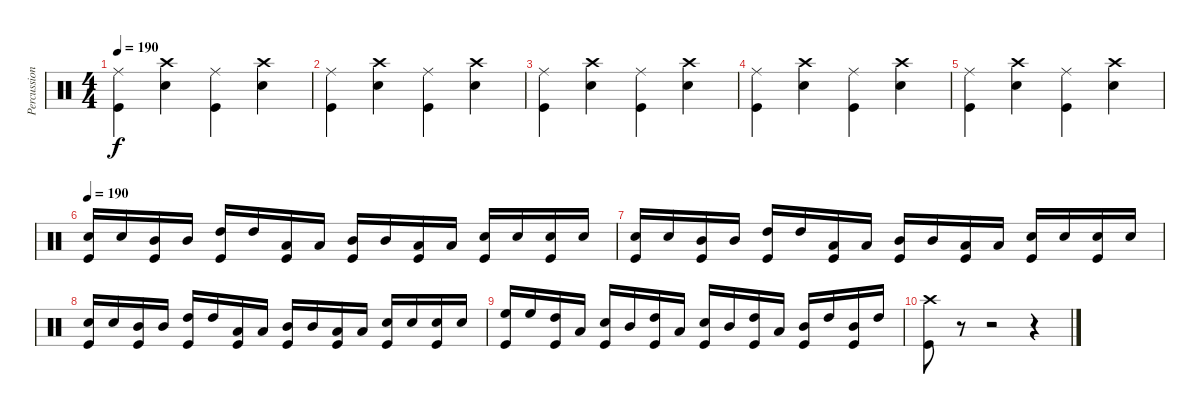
\track ("Percussioni" "Percussion") {instrument percussion}
\staff {score}
\articulation defaults
\ts (4 4)
\tempo 190
\clef neutral
\ks c
("Ride (middle)" "Kick (hit)").4{dy f} ("Crash high (hit)" "Electric Snare (hit)").4 ("Ride (middle)" "Kick (hit)").4 ("Crash high (hit)" "Electric Snare (hit)").4 |
("Ride (middle)" "Kick (hit)").4 ("Crash high (hit)" "Electric Snare (hit)").4 ("Ride (middle)" "Kick (hit)").4 ("Crash high (hit)" "Electric Snare (hit)").4 |
("Ride (middle)" "Kick (hit)").4 ("Crash high (hit)" "Electric Snare (hit)").4 ("Ride (middle)" "Kick (hit)").4 ("Crash high (hit)" "Electric Snare (hit)").4 |
("Ride (middle)" "Kick (hit)").4 ("Crash high (hit)" "Electric Snare (hit)").4 ("Ride (middle)" "Kick (hit)").4 ("Crash high (hit)" "Electric Snare (hit)").4 |
("Ride (middle)" "Kick (hit)").4 ("Crash high (hit)" "Electric Snare (hit)").4 ("Ride (middle)" "Kick (hit)").4 ("Crash high (hit)" "Electric Snare (hit)").4 |
\tempo 190
("Electric Snare (hit)" "Kick (hit)").16 "Electric Snare (hit)".16 ("Mid Tom (hit)" "Kick (hit)").16 "Mid Tom (hit)".16 ("High Tom (hit)" "Kick (hit)").16 "High Tom (hit)".16 ("Low Tom (hit)" "Kick (hit)").16 "Low Tom (hit)".16 ("Mid Tom (hit)" "Kick (hit)").16 "Mid Tom (hit)".16 ("Low Tom (hit)" "Kick (hit)").16 "Low Tom (hit)".16 ("Snare (hit) 2" "Kick (hit)").16 "Snare (hit) 2".16 ("Snare (hit) 2" "Kick (hit)").16 "Snare (hit) 2".16 |
("Electric Snare (hit)" "Kick (hit)").16 "Electric Snare (hit)".16 ("Mid Tom (hit)" "Kick (hit)").16 "Mid Tom (hit)".16 ("High Tom (hit)" "Kick (hit)").16 "High Tom (hit)".16 ("Low Tom (hit)" "Kick (hit)").16 "Low Tom (hit)".16 ("Mid Tom (hit)" "Kick (hit)").16 "Mid Tom (hit)".16 ("Low Tom (hit)" "Kick (hit)").16 "Low Tom (hit)".16 ("Snare (hit) 2" "Kick (hit)").16 "Snare (hit) 2".16 ("Snare (hit) 2" "Kick (hit)").16 "Snare (hit) 2".16 |
("Electric Snare (hit)" "Kick (hit)").16 "Electric Snare (hit)".16 ("Mid Tom (hit)" "Kick (hit)").16 "Mid Tom (hit)".16 ("High Tom (hit)" "Kick (hit)").16 "High Tom (hit)".16 ("Low Tom (hit)" "Kick (hit)").16 "Low Tom (hit)".16 ("Mid Tom (hit)" "Kick (hit)").16 "Mid Tom (hit)".16 ("Low Tom (hit)" "Kick (hit)").16 "Low Tom (hit)".16 ("Snare (hit) 2" "Kick (hit)").16 "Snare (hit) 2".16 ("Snare (hit) 2" "Kick (hit)").16 "Snare (hit) 2".16 |
("High Floor Tom (hit)" "Kick (hit)").16 "High Floor Tom (hit)".16 ("High Tom (hit)" "Kick (hit)").16 "Low Tom (hit)".16 ("Electric Snare (hit)" "Kick (hit)").16 "Mid Tom (hit)".16 ("High Tom (hit)" "Kick (hit)").16 "Low Tom (hit)".16 ("Electric Snare (hit)" "Kick (hit)").16 "Mid Tom (hit)".16 ("High Tom (hit)" "Kick (hit)").16 "Low Tom (hit)".16 ("Mid Tom (hit)" "Kick (hit)").16 "High Tom (hit)".16 ("Mid Tom (hit)" "Kick (hit)").16 "High Tom (hit)".16 |
("Crash high (hit)" "Kick (hit)").8 r.8 r.2 r.4
